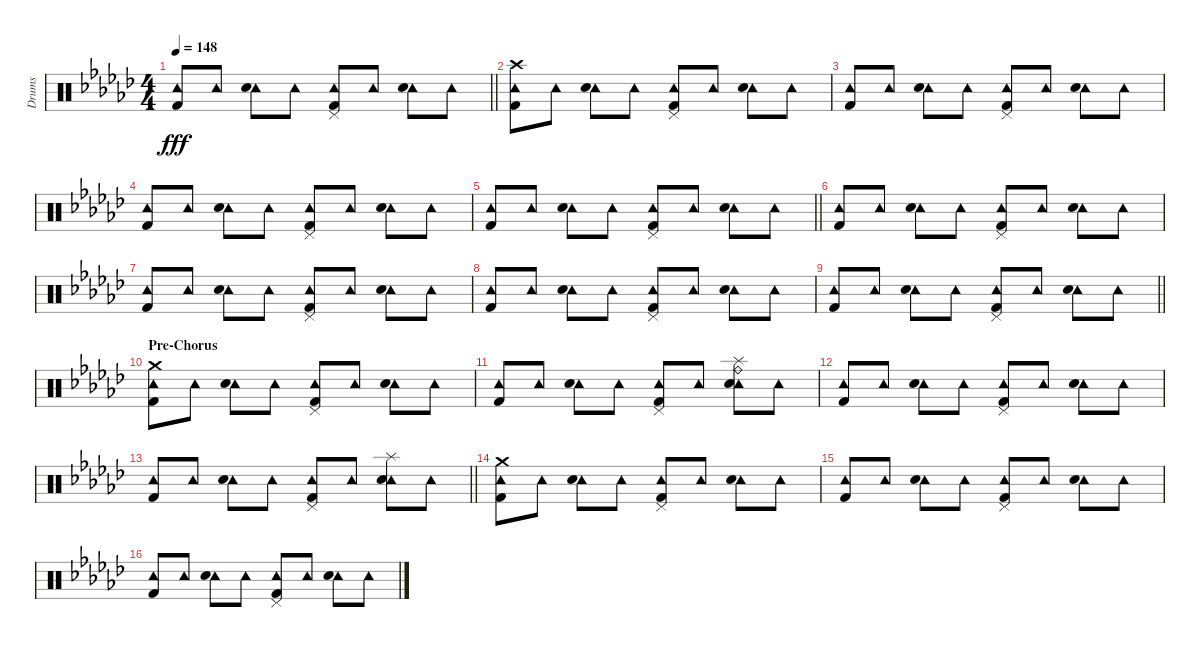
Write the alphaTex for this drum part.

\track ("Drums" "Drums") {instrument percussion}
\staff {score}
\articulation defaults
\ts (4 4)
\tempo 148
\clef neutral
\barLineRight lightlight
\ks gb
("Tambourine (hit)" "Kick (hit) 2").8{dy fff} "Tambourine (hit)".8 ("Tambourine (hit)" "Electric Snare (hit)").8 "Tambourine (hit)".8 ("Pedal Hi-Hat (hit)" "Tambourine (hit)" "Kick (hit) 2").8 "Tambourine (hit)".8 ("Tambourine (hit)" "Electric Snare (hit)").8 "Tambourine (hit)".8 |
("Crash high (hit)" "Tambourine (hit)" "Kick (hit) 2").8 "Tambourine (hit)".8 ("Tambourine (hit)" "Electric Snare (hit)").8 "Tambourine (hit)".8 ("Pedal Hi-Hat (hit)" "Tambourine (hit)" "Kick (hit) 2").8 "Tambourine (hit)".8 ("Tambourine (hit)" "Electric Snare (hit)").8 "Tambourine (hit)".8 |
("Tambourine (hit)" "Kick (hit) 2").8 "Tambourine (hit)".8 ("Tambourine (hit)" "Electric Snare (hit)").8 "Tambourine (hit)".8 ("Pedal Hi-Hat (hit)" "Tambourine (hit)" "Kick (hit) 2").8 "Tambourine (hit)".8 ("Tambourine (hit)" "Electric Snare (hit)").8 "Tambourine (hit)".8 |
("Tambourine (hit)" "Kick (hit) 2").8 "Tambourine (hit)".8 ("Tambourine (hit)" "Electric Snare (hit)").8 "Tambourine (hit)".8 ("Pedal Hi-Hat (hit)" "Tambourine (hit)" "Kick (hit) 2").8 "Tambourine (hit)".8 ("Tambourine (hit)" "Electric Snare (hit)").8 "Tambourine (hit)".8 |
\barLineRight lightlight
("Tambourine (hit)" "Kick (hit) 2").8 "Tambourine (hit)".8 ("Tambourine (hit)" "Electric Snare (hit)").8 "Tambourine (hit)".8 ("Pedal Hi-Hat (hit)" "Tambourine (hit)" "Kick (hit) 2").8 "Tambourine (hit)".8 ("Tambourine (hit)" "Electric Snare (hit)").8 "Tambourine (hit)".8 |
("Tambourine (hit)" "Kick (hit) 2").8 "Tambourine (hit)".8 ("Tambourine (hit)" "Electric Snare (hit)").8 "Tambourine (hit)".8 ("Pedal Hi-Hat (hit)" "Tambourine (hit)" "Kick (hit) 2").8 "Tambourine (hit)".8 ("Tambourine (hit)" "Electric Snare (hit)").8 "Tambourine (hit)".8 |
("Tambourine (hit)" "Kick (hit) 2").8 "Tambourine (hit)".8 ("Tambourine (hit)" "Electric Snare (hit)").8 "Tambourine (hit)".8 ("Pedal Hi-Hat (hit)" "Tambourine (hit)" "Kick (hit) 2").8 "Tambourine (hit)".8 ("Tambourine (hit)" "Electric Snare (hit)").8 "Tambourine (hit)".8 |
("Tambourine (hit)" "Kick (hit) 2").8 "Tambourine (hit)".8 ("Tambourine (hit)" "Electric Snare (hit)").8 "Tambourine (hit)".8 ("Pedal Hi-Hat (hit)" "Tambourine (hit)" "Kick (hit) 2").8 "Tambourine (hit)".8 ("Tambourine (hit)" "Electric Snare (hit)").8 "Tambourine (hit)".8 |
\barLineRight lightlight
("Tambourine (hit)" "Kick (hit) 2").8 "Tambourine (hit)".8 ("Tambourine (hit)" "Electric Snare (hit)").8 "Tambourine (hit)".8 ("Pedal Hi-Hat (hit)" "Tambourine (hit)" "Kick (hit) 2").8 "Tambourine (hit)".8 ("Tambourine (hit)" "Electric Snare (hit)").8 "Tambourine (hit)".8 |
\section ("" "Pre-Chorus")
("Crash medium (hit)" "Tambourine (hit)" "Kick (hit) 2").8 "Tambourine (hit)".8 ("Tambourine (hit)" "Electric Snare (hit)").8 "Tambourine (hit)".8 ("Pedal Hi-Hat (hit)" "Tambourine (hit)" "Kick (hit) 2").8 "Tambourine (hit)".8 ("Tambourine (hit)" "Electric Snare (hit)").8 "Tambourine (hit)".8 |
("Tambourine (hit)" "Kick (hit) 2").8 "Tambourine (hit)".8 ("Tambourine (hit)" "Electric Snare (hit)").8 "Tambourine (hit)".8 ("Pedal Hi-Hat (hit)" "Tambourine (hit)" "Kick (hit) 2").8 "Tambourine (hit)".8 ("Ride (bell)" "Splash (hit)" "Tambourine (hit)" "Electric Snare (hit)").8 "Tambourine (hit)".8 |
("Tambourine (hit)" "Kick (hit) 2").8 "Tambourine (hit)".8 ("Tambourine (hit)" "Electric Snare (hit)").8 "Tambourine (hit)".8 ("Pedal Hi-Hat (hit)" "Tambourine (hit)" "Kick (hit) 2").8 "Tambourine (hit)".8 ("Tambourine (hit)" "Electric Snare (hit)").8 "Tambourine (hit)".8 |
\barLineRight lightlight
("Tambourine (hit)" "Kick (hit) 2").8 "Tambourine (hit)".8 ("Tambourine (hit)" "Electric Snare (hit)").8 "Tambourine (hit)".8 ("Pedal Hi-Hat (hit)" "Tambourine (hit)" "Kick (hit) 2").8 "Tambourine (hit)".8 ("Splash (hit)" "Tambourine (hit)" "Electric Snare (hit)").8 "Tambourine (hit)".8 |
("Crash medium (hit)" "Tambourine (hit)" "Kick (hit) 2").8 "Tambourine (hit)".8 ("Tambourine (hit)" "Electric Snare (hit)").8 "Tambourine (hit)".8 ("Pedal Hi-Hat (hit)" "Tambourine (hit)" "Kick (hit) 2").8 "Tambourine (hit)".8 ("Tambourine (hit)" "Electric Snare (hit)").8 "Tambourine (hit)".8 |
("Tambourine (hit)" "Kick (hit) 2").8 "Tambourine (hit)".8 ("Tambourine (hit)" "Electric Snare (hit)").8 "Tambourine (hit)".8 ("Pedal Hi-Hat (hit)" "Tambourine (hit)" "Kick (hit) 2").8 "Tambourine (hit)".8 ("Tambourine (hit)" "Electric Snare (hit)").8 "Tambourine (hit)".8 |
("Tambourine (hit)" "Kick (hit) 2").8 "Tambourine (hit)".8 ("Tambourine (hit)" "Electric Snare (hit)").8 "Tambourine (hit)".8 ("Pedal Hi-Hat (hit)" "Tambourine (hit)" "Kick (hit) 2").8 "Tambourine (hit)".8 ("Tambourine (hit)" "Electric Snare (hit)").8 "Tambourine (hit)".8
